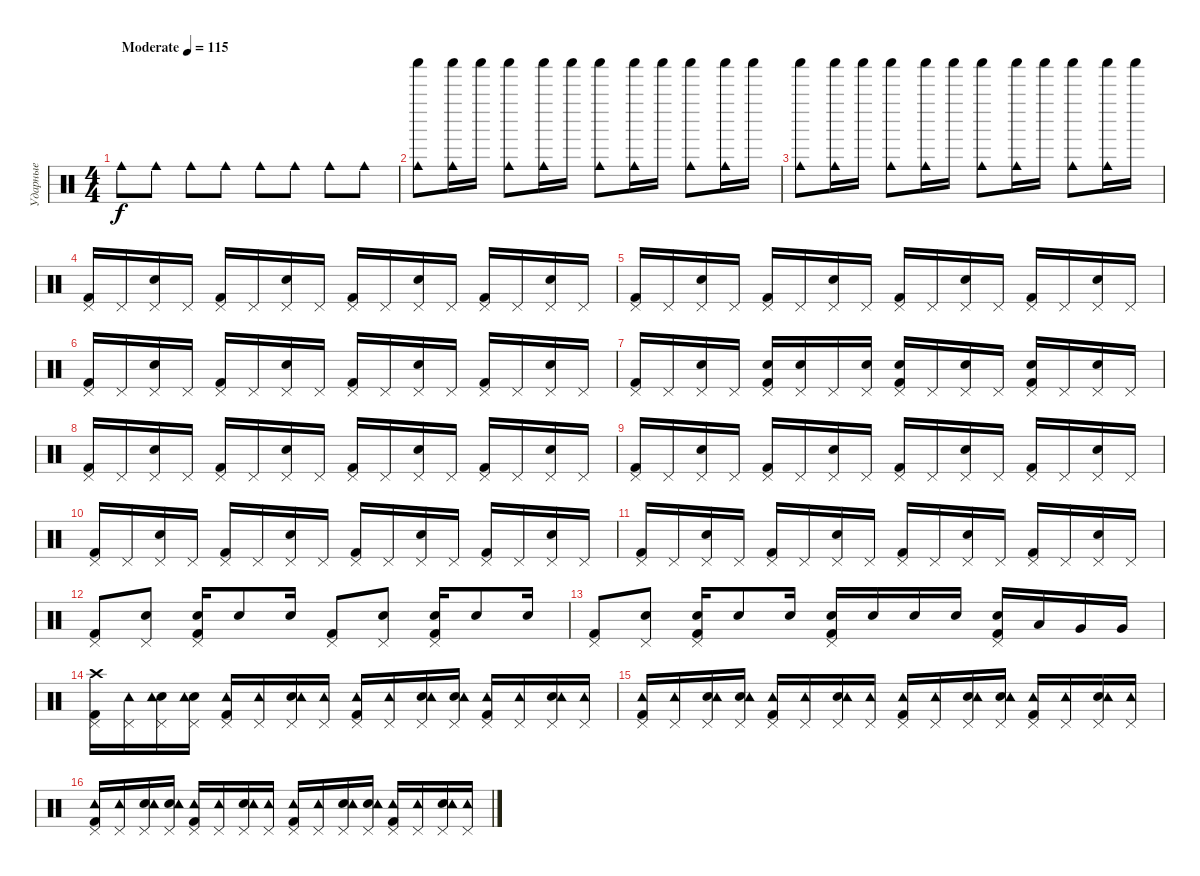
\track ("Ударные" "Ударные") {instrument percussion}
\staff {score}
\articulation defaults
\ts (4 4)
\tempo (115 "Moderate")
\clef neutral
\ks c "Cowbell medium (hit)".8{dy f} "Cowbell medium (hit)".8 "Cowbell medium (hit)".8 "Cowbell medium (hit)".8 "Cowbell medium (hit)".8 "Cowbell medium (hit)".8 "Cowbell medium (hit)".8 "Cowbell medium (hit)".8
|
("Cowbell medium (hit)" "Shaker (hit)").8 ("Cowbell medium (hit)" "Shaker (hit)").16 "Shaker (hit)".16 ("Cowbell medium (hit)" "Shaker (hit)").8 ("Cowbell medium (hit)" "Shaker (hit)").16 "Shaker (hit)".16 ("Cowbell medium (hit)" "Shaker (hit)").8 ("Cowbell medium (hit)" "Shaker (hit)").16 "Shaker (hit)".16 ("Cowbell medium (hit)" "Shaker (hit)").8 ("Cowbell medium (hit)" "Shaker (hit)").16 "Shaker (hit)".16 |
("Cowbell medium (hit)" "Shaker (hit)").8 ("Cowbell medium (hit)" "Shaker (hit)").16 "Shaker (hit)".16 ("Cowbell medium (hit)" "Shaker (hit)").8 ("Cowbell medium (hit)" "Shaker (hit)").16 "Shaker (hit)".16 ("Cowbell medium (hit)" "Shaker (hit)").8 ("Cowbell medium (hit)" "Shaker (hit)").16 "Shaker (hit)".16 ("Cowbell medium (hit)" "Shaker (hit)").8 ("Cowbell medium (hit)" "Shaker (hit)").16 "Shaker (hit)".16 |
("Kick (hit) 2" "Pedal Hi-Hat (hit)").16 "Pedal Hi-Hat (hit)".16 ("Pedal Hi-Hat (hit)" "Snare (hit) 2").16 "Pedal Hi-Hat (hit)".16 ("Kick (hit) 2" "Pedal Hi-Hat (hit)").16 "Pedal Hi-Hat (hit)".16 ("Pedal Hi-Hat (hit)" "Snare (hit) 2").16 "Pedal Hi-Hat (hit)".16 ("Kick (hit) 2" "Pedal Hi-Hat (hit)").16 "Pedal Hi-Hat (hit)".16 ("Pedal Hi-Hat (hit)" "Snare (hit) 2").16 "Pedal Hi-Hat (hit)".16 ("Kick (hit) 2" "Pedal Hi-Hat (hit)").16 "Pedal Hi-Hat (hit)".16 ("Pedal Hi-Hat (hit)" "Snare (hit) 2").16 "Pedal Hi-Hat (hit)".16 |
("Kick (hit) 2" "Pedal Hi-Hat (hit)").16 "Pedal Hi-Hat (hit)".16 ("Pedal Hi-Hat (hit)" "Snare (hit) 2").16 "Pedal Hi-Hat (hit)".16 ("Kick (hit) 2" "Pedal Hi-Hat (hit)").16 "Pedal Hi-Hat (hit)".16 ("Pedal Hi-Hat (hit)" "Snare (hit) 2").16 "Pedal Hi-Hat (hit)".16 ("Kick (hit) 2" "Pedal Hi-Hat (hit)").16 "Pedal Hi-Hat (hit)".16 ("Pedal Hi-Hat (hit)" "Snare (hit) 2").16 "Pedal Hi-Hat (hit)".16 ("Kick (hit) 2" "Pedal Hi-Hat (hit)").16 "Pedal Hi-Hat (hit)".16 ("Pedal Hi-Hat (hit)" "Snare (hit) 2").16 "Pedal Hi-Hat (hit)".16 |
("Kick (hit) 2" "Pedal Hi-Hat (hit)").16 "Pedal Hi-Hat (hit)".16 ("Pedal Hi-Hat (hit)" "Snare (hit) 2").16 "Pedal Hi-Hat (hit)".16 ("Kick (hit) 2" "Pedal Hi-Hat (hit)").16 "Pedal Hi-Hat (hit)".16 ("Pedal Hi-Hat (hit)" "Snare (hit) 2").16 "Pedal Hi-Hat (hit)".16 ("Kick (hit) 2" "Pedal Hi-Hat (hit)").16 "Pedal Hi-Hat (hit)".16 ("Pedal Hi-Hat (hit)" "Snare (hit) 2").16 "Pedal Hi-Hat (hit)".16 ("Kick (hit) 2" "Pedal Hi-Hat (hit)").16 "Pedal Hi-Hat (hit)".16 ("Pedal Hi-Hat (hit)" "Snare (hit) 2").16 "Pedal Hi-Hat (hit)".16 |
("Kick (hit) 2" "Pedal Hi-Hat (hit)").16 "Pedal Hi-Hat (hit)".16 ("Pedal Hi-Hat (hit)" "Snare (hit) 2").16 "Pedal Hi-Hat (hit)".16 ("Kick (hit) 2" "Pedal Hi-Hat (hit)" "Snare (hit) 2").16 ("Pedal Hi-Hat (hit)" "Snare (hit) 2").16 "Pedal Hi-Hat (hit)".16 ("Pedal Hi-Hat (hit)" "Snare (hit) 2").16 ("Kick (hit) 2" "Pedal Hi-Hat (hit)" "Snare (hit) 2").16 "Pedal Hi-Hat (hit)".16 ("Pedal Hi-Hat (hit)" "Snare (hit) 2").16 "Pedal Hi-Hat (hit)".16 ("Kick (hit) 2" "Pedal Hi-Hat (hit)" "Snare (hit) 2").16 "Pedal Hi-Hat (hit)".16 ("Pedal Hi-Hat (hit)" "Snare (hit) 2").16 "Pedal Hi-Hat (hit)".16 |
("Kick (hit) 2" "Pedal Hi-Hat (hit)").16 "Pedal Hi-Hat (hit)".16 ("Pedal Hi-Hat (hit)" "Snare (hit) 2").16 "Pedal Hi-Hat (hit)".16 ("Kick (hit) 2" "Pedal Hi-Hat (hit)").16 "Pedal Hi-Hat (hit)".16 ("Pedal Hi-Hat (hit)" "Snare (hit) 2").16 "Pedal Hi-Hat (hit)".16 ("Kick (hit) 2" "Pedal Hi-Hat (hit)").16 "Pedal Hi-Hat (hit)".16 ("Pedal Hi-Hat (hit)" "Snare (hit) 2").16 "Pedal Hi-Hat (hit)".16 ("Kick (hit) 2" "Pedal Hi-Hat (hit)").16 "Pedal Hi-Hat (hit)".16 ("Pedal Hi-Hat (hit)" "Snare (hit) 2").16 "Pedal Hi-Hat (hit)".16 |
("Kick (hit) 2" "Pedal Hi-Hat (hit)").16 "Pedal Hi-Hat (hit)".16 ("Pedal Hi-Hat (hit)" "Snare (hit) 2").16 "Pedal Hi-Hat (hit)".16 ("Kick (hit) 2" "Pedal Hi-Hat (hit)").16 "Pedal Hi-Hat (hit)".16 ("Pedal Hi-Hat (hit)" "Snare (hit) 2").16 "Pedal Hi-Hat (hit)".16 ("Kick (hit) 2" "Pedal Hi-Hat (hit)").16 "Pedal Hi-Hat (hit)".16 ("Pedal Hi-Hat (hit)" "Snare (hit) 2").16 "Pedal Hi-Hat (hit)".16 ("Kick (hit) 2" "Pedal Hi-Hat (hit)").16 "Pedal Hi-Hat (hit)".16 ("Pedal Hi-Hat (hit)" "Snare (hit) 2").16 "Pedal Hi-Hat (hit)".16 |
("Kick (hit) 2" "Pedal Hi-Hat (hit)").16 "Pedal Hi-Hat (hit)".16 ("Pedal Hi-Hat (hit)" "Snare (hit) 2").16 "Pedal Hi-Hat (hit)".16 ("Kick (hit) 2" "Pedal Hi-Hat (hit)").16 "Pedal Hi-Hat (hit)".16 ("Pedal Hi-Hat (hit)" "Snare (hit) 2").16 "Pedal Hi-Hat (hit)".16 ("Kick (hit) 2" "Pedal Hi-Hat (hit)").16 "Pedal Hi-Hat (hit)".16 ("Pedal Hi-Hat (hit)" "Snare (hit) 2").16 "Pedal Hi-Hat (hit)".16 ("Kick (hit) 2" "Pedal Hi-Hat (hit)").16 "Pedal Hi-Hat (hit)".16 ("Pedal Hi-Hat (hit)" "Snare (hit) 2").16 "Pedal Hi-Hat (hit)".16 |
("Kick (hit) 2" "Pedal Hi-Hat (hit)").16 "Pedal Hi-Hat (hit)".16 ("Pedal Hi-Hat (hit)" "Snare (hit) 2").16 "Pedal Hi-Hat (hit)".16 ("Kick (hit) 2" "Pedal Hi-Hat (hit)").16 "Pedal Hi-Hat (hit)".16 ("Pedal Hi-Hat (hit)" "Snare (hit) 2").16 "Pedal Hi-Hat (hit)".16 ("Kick (hit) 2" "Pedal Hi-Hat (hit)").16 "Pedal Hi-Hat (hit)".16 ("Pedal Hi-Hat (hit)" "Snare (hit) 2").16 "Pedal Hi-Hat (hit)".16 ("Kick (hit) 2" "Pedal Hi-Hat (hit)").16 "Pedal Hi-Hat (hit)".16 ("Pedal Hi-Hat (hit)" "Snare (hit) 2").16 "Pedal Hi-Hat (hit)".16 |
("Kick (hit) 2" "Pedal Hi-Hat (hit)").8 ("Pedal Hi-Hat (hit)" "Snare (hit) 2").8 ("Kick (hit) 2" "Pedal Hi-Hat (hit)" "Snare (hit) 2").16 "Snare (hit) 2".8 "Snare (hit) 2".16 ("Kick (hit) 2" "Pedal Hi-Hat (hit)").8 ("Pedal Hi-Hat (hit)" "Snare (hit) 2").8 ("Kick (hit) 2" "Pedal Hi-Hat (hit)" "Snare (hit) 2").16 "Snare (hit) 2".8 "Snare (hit) 2".16 |
("Kick (hit) 2" "Pedal Hi-Hat (hit)").8 ("Pedal Hi-Hat (hit)" "Snare (hit) 2").8 ("Kick (hit) 2" "Pedal Hi-Hat (hit)" "Snare (hit) 2").16 "Snare (hit) 2".8 "Snare (hit) 2".16 ("Kick (hit) 2" "Pedal Hi-Hat (hit)" "Snare (hit) 2").16 "Snare (hit) 2".16 "Snare (hit) 2".16 "Snare (hit) 2".16 ("Kick (hit) 2" "Pedal Hi-Hat (hit)" "Snare (hit) 2").16 "Low Tom (hit)".16 "Very Low Tom (hit)".16 "Very Low Tom (hit)".16 |
("Kick (hit) 2" "Pedal Hi-Hat (hit)" "Crash high (hit)").16 ("Pedal Hi-Hat (hit)" "Tambourine (hit)").16 ("Pedal Hi-Hat (hit)" "Snare (hit) 2" "Tambourine (hit)").16 ("Pedal Hi-Hat (hit)" "Snare (hit) 2" "Tambourine (hit)").16 ("Kick (hit) 2" "Pedal Hi-Hat (hit)" "Tambourine (hit)").16 ("Pedal Hi-Hat (hit)" "Tambourine (hit)").16 ("Pedal Hi-Hat (hit)" "Snare (hit) 2" "Tambourine (hit)").16 ("Pedal Hi-Hat (hit)" "Tambourine (hit)").16 ("Kick (hit) 2" "Pedal Hi-Hat (hit)" "Tambourine (hit)").16 ("Pedal Hi-Hat (hit)" "Tambourine (hit)").16 ("Pedal Hi-Hat (hit)" "Snare (hit) 2" "Tambourine (hit)").16 ("Pedal Hi-Hat (hit)" "Snare (hit) 2" "Tambourine (hit)").16 ("Kick (hit) 2" "Pedal Hi-Hat (hit)" "Tambourine (hit)").16 ("Pedal Hi-Hat (hit)" "Tambourine (hit)").16 ("Pedal Hi-Hat (hit)" "Snare (hit) 2" "Tambourine (hit)").16 ("Pedal Hi-Hat (hit)" "Tambourine (hit)").16 |
("Kick (hit) 2" "Pedal Hi-Hat (hit)" "Tambourine (hit)").16 ("Pedal Hi-Hat (hit)" "Tambourine (hit)").16 ("Pedal Hi-Hat (hit)" "Snare (hit) 2" "Tambourine (hit)").16 ("Pedal Hi-Hat (hit)" "Snare (hit) 2" "Tambourine (hit)").16 ("Kick (hit) 2" "Pedal Hi-Hat (hit)" "Tambourine (hit)").16 ("Pedal Hi-Hat (hit)" "Tambourine (hit)").16 ("Pedal Hi-Hat (hit)" "Snare (hit) 2" "Tambourine (hit)").16 ("Pedal Hi-Hat (hit)" "Tambourine (hit)").16 ("Kick (hit) 2" "Pedal Hi-Hat (hit)" "Tambourine (hit)").16 ("Pedal Hi-Hat (hit)" "Tambourine (hit)").16 ("Pedal Hi-Hat (hit)" "Snare (hit) 2" "Tambourine (hit)").16 ("Pedal Hi-Hat (hit)" "Snare (hit) 2" "Tambourine (hit)").16 ("Kick (hit) 2" "Pedal Hi-Hat (hit)" "Tambourine (hit)").16 ("Pedal Hi-Hat (hit)" "Tambourine (hit)").16 ("Pedal Hi-Hat (hit)" "Snare (hit) 2" "Tambourine (hit)").16 ("Pedal Hi-Hat (hit)" "Tambourine (hit)").16 |
("Kick (hit) 2" "Pedal Hi-Hat (hit)" "Tambourine (hit)").16 ("Pedal Hi-Hat (hit)" "Tambourine (hit)").16 ("Pedal Hi-Hat (hit)" "Snare (hit) 2" "Tambourine (hit)").16 ("Pedal Hi-Hat (hit)" "Snare (hit) 2" "Tambourine (hit)").16 ("Kick (hit) 2" "Pedal Hi-Hat (hit)" "Tambourine (hit)").16 ("Pedal Hi-Hat (hit)" "Tambourine (hit)").16 ("Pedal Hi-Hat (hit)" "Snare (hit) 2" "Tambourine (hit)").16 ("Pedal Hi-Hat (hit)" "Tambourine (hit)").16 ("Kick (hit) 2" "Pedal Hi-Hat (hit)" "Tambourine (hit)").16 ("Pedal Hi-Hat (hit)" "Tambourine (hit)").16 ("Pedal Hi-Hat (hit)" "Snare (hit) 2" "Tambourine (hit)").16 ("Pedal Hi-Hat (hit)" "Snare (hit) 2" "Tambourine (hit)").16 ("Kick (hit) 2" "Pedal Hi-Hat (hit)" "Tambourine (hit)").16 ("Pedal Hi-Hat (hit)" "Tambourine (hit)").16 ("Pedal Hi-Hat (hit)" "Snare (hit) 2" "Tambourine (hit)").16 ("Pedal Hi-Hat (hit)" "Tambourine (hit)").16
